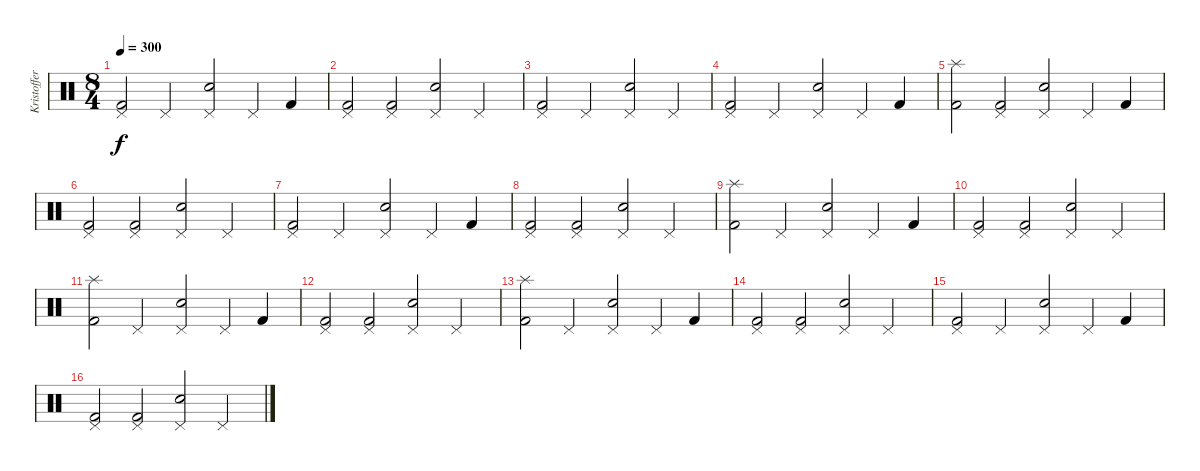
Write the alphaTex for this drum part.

\track ("Kristoffer Söderström" "Kristoffer") {instrument percussion}
\staff {score}
\articulation defaults
\ts (8 4)
\tempo 300
\clef neutral
\ks c
("Pedal Hi-Hat (hit)" "Kick (hit) 2").2{dy f} "Pedal Hi-Hat (hit)".2 ("Snare (hit) 2" "Pedal Hi-Hat (hit)").2 "Pedal Hi-Hat (hit)".4 "Kick (hit) 2".4 |
("Pedal Hi-Hat (hit)" "Kick (hit) 2").2 ("Pedal Hi-Hat (hit)" "Kick (hit) 2").2 ("Snare (hit) 2" "Pedal Hi-Hat (hit)").2 "Pedal Hi-Hat (hit)".2 |
("Pedal Hi-Hat (hit)" "Kick (hit) 2").2 "Pedal Hi-Hat (hit)".2 ("Snare (hit) 2" "Pedal Hi-Hat (hit)").2 "Pedal Hi-Hat (hit)".4 |
("Pedal Hi-Hat (hit)" "Kick (hit) 2").2 "Pedal Hi-Hat (hit)".2 ("Snare (hit) 2" "Pedal Hi-Hat (hit)").2 "Pedal Hi-Hat (hit)".4 "Kick (hit) 2".4 |
("Splash (hit)" "Kick (hit) 2").2 ("Pedal Hi-Hat (hit)" "Kick (hit) 2").2 ("Snare (hit) 2" "Pedal Hi-Hat (hit)").2 "Pedal Hi-Hat (hit)".4 "Kick (hit) 2".4 |
("Pedal Hi-Hat (hit)" "Kick (hit) 2").2 ("Pedal Hi-Hat (hit)" "Kick (hit) 2").2 ("Snare (hit) 2" "Pedal Hi-Hat (hit)").2 "Pedal Hi-Hat (hit)".2 |
("Pedal Hi-Hat (hit)" "Kick (hit) 2").2 "Pedal Hi-Hat (hit)".2 ("Snare (hit) 2" "Pedal Hi-Hat (hit)").2 "Pedal Hi-Hat (hit)".4 "Kick (hit) 2".4 |
("Pedal Hi-Hat (hit)" "Kick (hit) 2").2 ("Pedal Hi-Hat (hit)" "Kick (hit) 2").2 ("Snare (hit) 2" "Pedal Hi-Hat (hit)").2 "Pedal Hi-Hat (hit)".2 |
("Splash (hit)" "Kick (hit) 2").2 "Pedal Hi-Hat (hit)".2 ("Snare (hit) 2" "Pedal Hi-Hat (hit)").2 "Pedal Hi-Hat (hit)".4 "Kick (hit) 2".4 |
("Pedal Hi-Hat (hit)" "Kick (hit) 2").2 ("Pedal Hi-Hat (hit)" "Kick (hit) 2").2 ("Snare (hit) 2" "Pedal Hi-Hat (hit)").2 "Pedal Hi-Hat (hit)".2 |
("Splash (hit)" "Kick (hit) 2").2 "Pedal Hi-Hat (hit)".2 ("Snare (hit) 2" "Pedal Hi-Hat (hit)").2 "Pedal Hi-Hat (hit)".4 "Kick (hit) 2".4 |
("Pedal Hi-Hat (hit)" "Kick (hit) 2").2 ("Pedal Hi-Hat (hit)" "Kick (hit) 2").2 ("Snare (hit) 2" "Pedal Hi-Hat (hit)").2 "Pedal Hi-Hat (hit)".2 |
("Splash (hit)" "Kick (hit) 2").2 "Pedal Hi-Hat (hit)".2 ("Snare (hit) 2" "Pedal Hi-Hat (hit)").2 "Pedal Hi-Hat (hit)".4 "Kick (hit) 2".4 |
("Pedal Hi-Hat (hit)" "Kick (hit) 2").2 ("Pedal Hi-Hat (hit)" "Kick (hit) 2").2 ("Snare (hit) 2" "Pedal Hi-Hat (hit)").2 "Pedal Hi-Hat (hit)".2 |
("Pedal Hi-Hat (hit)" "Kick (hit) 2").2 "Pedal Hi-Hat (hit)".2 ("Snare (hit) 2" "Pedal Hi-Hat (hit)").2 "Pedal Hi-Hat (hit)".4 "Kick (hit) 2".4 |
("Pedal Hi-Hat (hit)" "Kick (hit) 2").2 ("Pedal Hi-Hat (hit)" "Kick (hit) 2").2 ("Snare (hit) 2" "Pedal Hi-Hat (hit)").2 "Pedal Hi-Hat (hit)".2
